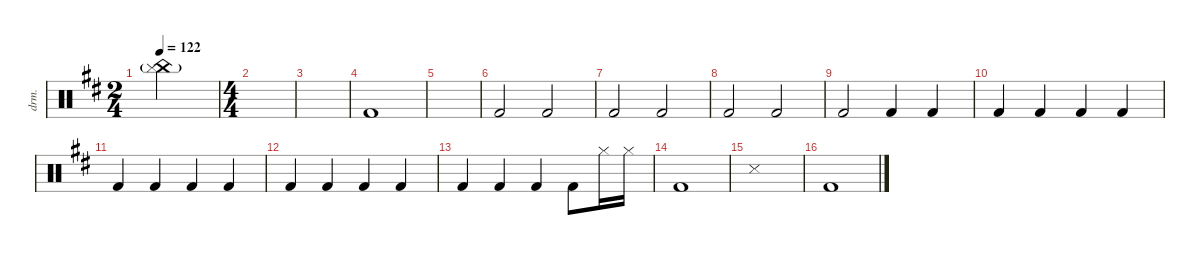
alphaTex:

\defaultSystemsLayout 4
\hideDynamics
\bracketExtendMode nobrackets
\otherSystemsTrackNameOrientation horizontal
\track ("Drumkit" "drm.") {defaultSystemsLayout 4 instrument percussion}
\staff {score}
\articulation defaults
\ts (2 4)
\tempo 122
\clef neutral
\ks d
("China (hit)"{acc forcenatural} "Cymbal (hit)"{g acc forcenatural}).2{dy mf beam Down} |
\ts (4 4)
|
|
"Kick (hit) 2"{acc forcenatural}.1{beam Up} |
|
"Kick (hit) 2"{acc forcenatural}.2{beam Up} "Kick (hit) 2"{acc forcenatural}.2{beam Up} |
"Kick (hit) 2"{acc forcenatural}.2{beam Up} "Kick (hit) 2"{acc forcenatural}.2{beam Up} |
"Kick (hit) 2"{acc forcenatural}.2{beam Up} "Kick (hit) 2"{acc forcenatural}.2{beam Up} |
"Kick (hit) 2"{acc forcenatural}.2{beam Up} "Kick (hit) 2"{acc forcenatural}.4{beam Up} "Kick (hit) 2"{acc forcenatural}.4{beam Up} |
"Kick (hit) 2"{acc forcenatural}.4{beam Up} "Kick (hit) 2"{acc forcenatural}.4{beam Up} "Kick (hit) 2"{acc forcenatural}.4{beam Up} "Kick (hit) 2"{acc forcenatural}.4{beam Up} |
"Kick (hit) 2"{acc forcenatural}.4{beam Up} "Kick (hit) 2"{acc forcenatural}.4{beam Up} "Kick (hit) 2"{acc forcenatural}.4{beam Up} "Kick (hit) 2"{acc forcenatural}.4{beam Up} |
"Kick (hit) 2"{acc forcenatural}.4{beam Up} "Kick (hit) 2"{acc forcenatural}.4{beam Up} "Kick (hit) 2"{acc forcenatural}.4{beam Up} "Kick (hit) 2"{acc forcenatural}.4{beam Up} |
"Kick (hit) 2"{acc forcenatural}.4{beam Up} "Kick (hit) 2"{acc forcenatural}.4{beam Up} "Kick (hit) 2"{acc forcenatural}.4{beam Up} "Kick (hit) 2"{acc forcenatural}.8{beam Down} "Hi-Hat (closed)"{acc forcenatural}.16{beam Down} "Hi-Hat (closed)"{acc forcenatural}.16{beam Down} |
"Kick (hit) 2"{acc forcenatural}.1{beam Up} |
"Snare (side stick) 3"{acc forcenatural}.1{beam Down} |
"Kick (hit) 2"{acc forcenatural}.1{beam Up}
